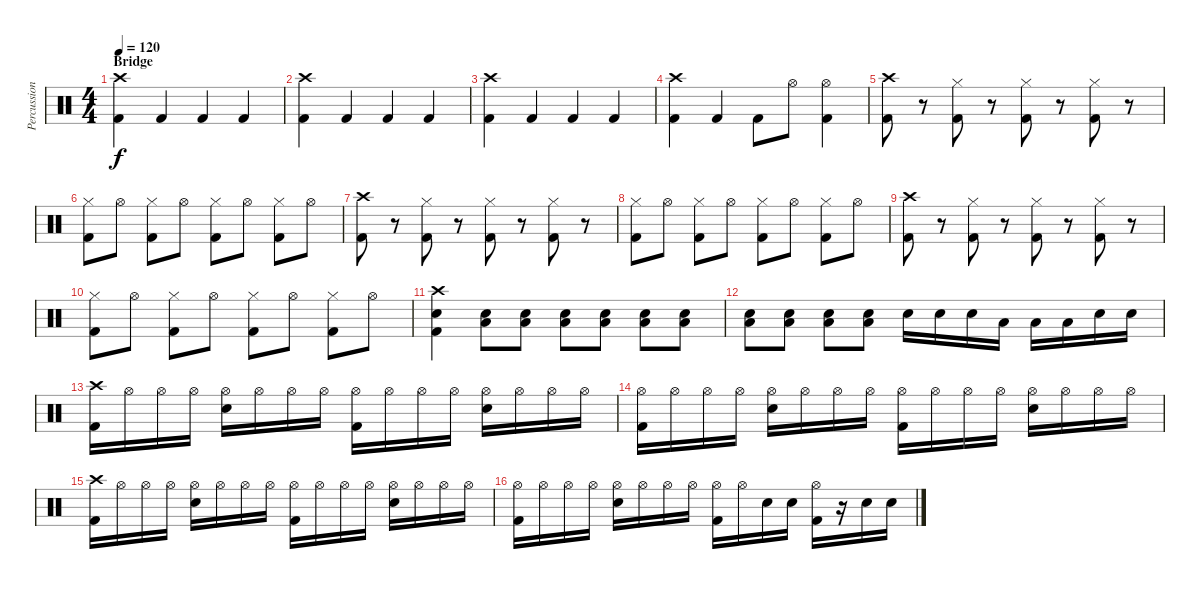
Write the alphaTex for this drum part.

\track ("Percussion" "Percussion") {instrument percussion}
\staff {score}
\articulation defaults
\ts (4 4)
\section ("" "Bridge")
\tempo 120
\clef neutral
\ks c
("Crash high (hit)" "Kick (hit) 2").4{dy f} "Kick (hit) 2".4 "Kick (hit) 2".4 "Kick (hit) 2".4 |
("Crash high (hit)" "Kick (hit) 2").4 "Kick (hit) 2".4 "Kick (hit) 2".4 "Kick (hit) 2".4 |
("Crash high (hit)" "Kick (hit) 2").4 "Kick (hit) 2".4 "Kick (hit) 2".4 "Kick (hit) 2".4 |
("Crash high (hit)" "Kick (hit) 2").4 "Kick (hit) 2".4 "Kick (hit) 2".8 "Hi-Hat (open)".8 ("Hi-Hat (open)" "Kick (hit) 2").4 |
("Crash high (hit)" "Kick (hit) 2").8 r.8 ("Hi-Hat (closed)" "Kick (hit) 2").8 r.8 ("Hi-Hat (closed)" "Kick (hit) 2").8 r.8 ("Hi-Hat (closed)" "Kick (hit) 2").8 r.8 |
("Hi-Hat (closed)" "Kick (hit) 2").8 "Hi-Hat (open)".8 ("Hi-Hat (closed)" "Kick (hit) 2").8 "Hi-Hat (open)".8 ("Hi-Hat (closed)" "Kick (hit) 2").8 "Hi-Hat (open)".8 ("Hi-Hat (closed)" "Kick (hit) 2").8 "Hi-Hat (open)".8 |
("Crash high (hit)" "Kick (hit) 2").8 r.8 ("Hi-Hat (closed)" "Kick (hit) 2").8 r.8 ("Hi-Hat (closed)" "Kick (hit) 2").8 r.8 ("Hi-Hat (closed)" "Kick (hit) 2").8 r.8 |
("Hi-Hat (closed)" "Kick (hit) 2").8 "Hi-Hat (open)".8 ("Hi-Hat (closed)" "Kick (hit) 2").8 "Hi-Hat (open)".8 ("Hi-Hat (closed)" "Kick (hit) 2").8 "Hi-Hat (open)".8 ("Hi-Hat (closed)" "Kick (hit) 2").8 "Hi-Hat (open)".8 |
("Crash high (hit)" "Kick (hit) 2").8 r.8 ("Hi-Hat (closed)" "Kick (hit) 2").8 r.8 ("Hi-Hat (closed)" "Kick (hit) 2").8 r.8 ("Hi-Hat (closed)" "Kick (hit) 2").8 r.8 |
("Hi-Hat (closed)" "Kick (hit) 2").8 "Hi-Hat (open)".8 ("Hi-Hat (closed)" "Kick (hit) 2").8 "Hi-Hat (open)".8 ("Hi-Hat (closed)" "Kick (hit) 2").8 "Hi-Hat (open)".8 ("Hi-Hat (closed)" "Kick (hit) 2").8 "Hi-Hat (open)".8 |
("Electric Snare (hit)" "Kick (hit) 2" "Crash high (hit)").4 ("Electric Snare (hit)" "Low Floor Tom (hit)").8 ("Electric Snare (hit)" "Low Floor Tom (hit)").8 ("Electric Snare (hit)" "Low Floor Tom (hit)").8 ("Electric Snare (hit)" "Low Floor Tom (hit)").8 ("Electric Snare (hit)" "Low Floor Tom (hit)").8 ("Electric Snare (hit)" "Low Floor Tom (hit)").8 |
("Electric Snare (hit)" "Low Floor Tom (hit)").8 ("Electric Snare (hit)" "Low Floor Tom (hit)").8 ("Electric Snare (hit)" "Low Floor Tom (hit)").8 ("Electric Snare (hit)" "Low Floor Tom (hit)").8 "Electric Snare (hit)".16 "Electric Snare (hit)".16 "Electric Snare (hit)".16 "Low Tom (hit)".16 "Low Tom (hit)".16 "Low Tom (hit)".16 "Electric Snare (hit)".16 "Electric Snare (hit)".16 |
("Crash high (hit)" "Kick (hit) 2").16 "Hi-Hat (open)".16 "Hi-Hat (open)".16 "Hi-Hat (open)".16 ("Hi-Hat (open)" "Electric Snare (hit)").16 "Hi-Hat (open)".16 "Hi-Hat (open)".16 "Hi-Hat (open)".16 ("Hi-Hat (open)" "Kick (hit) 2").16 "Hi-Hat (open)".16 "Hi-Hat (open)".16 "Hi-Hat (open)".16 ("Hi-Hat (open)" "Electric Snare (hit)").16 "Hi-Hat (open)".16 "Hi-Hat (open)".16 "Hi-Hat (open)".16 |
("Hi-Hat (open)" "Kick (hit) 2").16 "Hi-Hat (open)".16 "Hi-Hat (open)".16 "Hi-Hat (open)".16 ("Hi-Hat (open)" "Electric Snare (hit)").16 "Hi-Hat (open)".16 "Hi-Hat (open)".16 "Hi-Hat (open)".16 ("Hi-Hat (open)" "Kick (hit) 2").16 "Hi-Hat (open)".16 "Hi-Hat (open)".16 "Hi-Hat (open)".16 ("Hi-Hat (open)" "Electric Snare (hit)").16 "Hi-Hat (open)".16 "Hi-Hat (open)".16 "Hi-Hat (open)".16 |
("Crash high (hit)" "Kick (hit) 2").16 "Hi-Hat (open)".16 "Hi-Hat (open)".16 "Hi-Hat (open)".16 ("Hi-Hat (open)" "Electric Snare (hit)").16 "Hi-Hat (open)".16 "Hi-Hat (open)".16 "Hi-Hat (open)".16 ("Hi-Hat (open)" "Kick (hit) 2").16 "Hi-Hat (open)".16 "Hi-Hat (open)".16 "Hi-Hat (open)".16 ("Hi-Hat (open)" "Electric Snare (hit)").16 "Hi-Hat (open)".16 "Hi-Hat (open)".16 "Hi-Hat (open)".16 |
("Hi-Hat (open)" "Kick (hit) 2").16 "Hi-Hat (open)".16 "Hi-Hat (open)".16 "Hi-Hat (open)".16 ("Hi-Hat (open)" "Electric Snare (hit)").16 "Hi-Hat (open)".16 "Hi-Hat (open)".16 "Hi-Hat (open)".16 ("Hi-Hat (open)" "Kick (hit) 2").16 "Hi-Hat (open)".16 "Electric Snare (hit)".16 "Electric Snare (hit)".16 ("Hi-Hat (open)" "Kick (hit) 2").16 r.16 "Electric Snare (hit)".16 "Electric Snare (hit)".16
